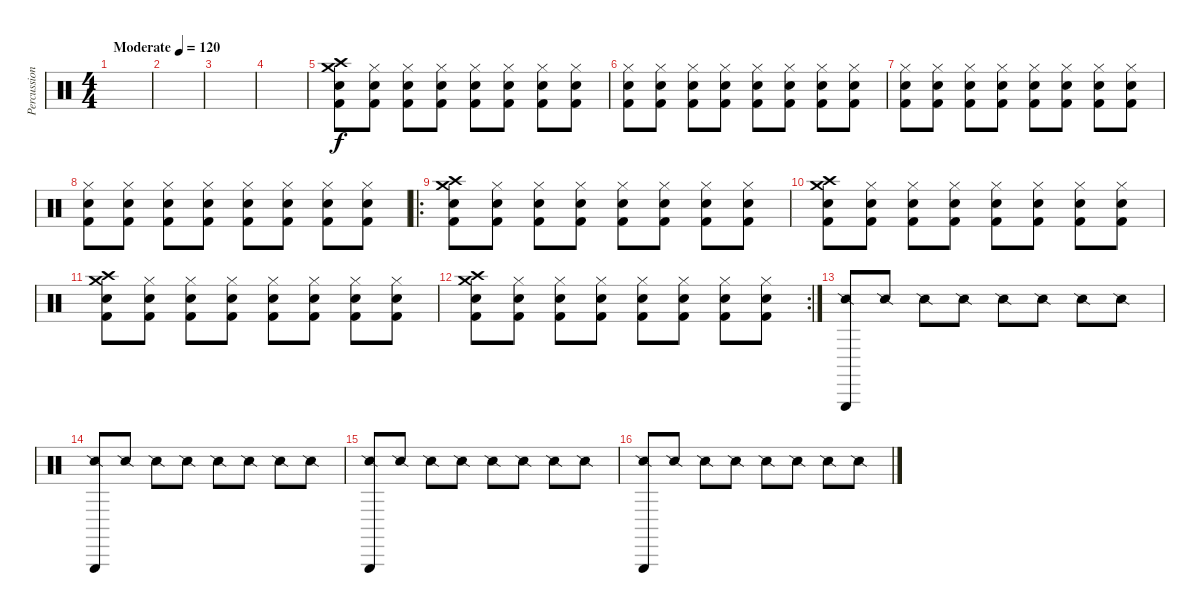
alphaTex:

\track ("Percussion" "Percussion") {instrument percussion}
\staff {score}
\articulation defaults
\ts (4 4)
\tempo (120 "Moderate")
\clef neutral
\ks c
|
|
|
|
("Kick (hit) 2" "Crash high (hit)" "Crash medium (hit)" "Snare (hit) 2").8 ("Hi-Hat (closed)" "Kick (hit) 2" "Snare (hit) 2").8 ("Hi-Hat (closed)" "Kick (hit) 2" "Snare (hit) 2").8 ("Hi-Hat (closed)" "Kick (hit) 2" "Snare (hit) 2").8 ("Hi-Hat (closed)" "Kick (hit) 2" "Snare (hit) 2").8 ("Hi-Hat (closed)" "Kick (hit) 2" "Snare (hit) 2").8 ("Hi-Hat (closed)" "Kick (hit) 2" "Snare (hit) 2").8 ("Hi-Hat (closed)" "Kick (hit) 2" "Snare (hit) 2").8 |
("Hi-Hat (closed)" "Kick (hit) 2" "Snare (hit) 2").8 ("Hi-Hat (closed)" "Kick (hit) 2" "Snare (hit) 2").8 ("Hi-Hat (closed)" "Kick (hit) 2" "Snare (hit) 2").8 ("Hi-Hat (closed)" "Kick (hit) 2" "Snare (hit) 2").8 ("Hi-Hat (closed)" "Kick (hit) 2" "Snare (hit) 2").8 ("Hi-Hat (closed)" "Kick (hit) 2" "Snare (hit) 2").8 ("Hi-Hat (closed)" "Kick (hit) 2" "Snare (hit) 2").8 ("Hi-Hat (closed)" "Kick (hit) 2" "Snare (hit) 2").8 |
("Hi-Hat (closed)" "Kick (hit) 2" "Snare (hit) 2").8 ("Hi-Hat (closed)" "Kick (hit) 2" "Snare (hit) 2").8 ("Hi-Hat (closed)" "Kick (hit) 2" "Snare (hit) 2").8 ("Hi-Hat (closed)" "Kick (hit) 2" "Snare (hit) 2").8 ("Hi-Hat (closed)" "Kick (hit) 2" "Snare (hit) 2").8 ("Hi-Hat (closed)" "Kick (hit) 2" "Snare (hit) 2").8 ("Hi-Hat (closed)" "Kick (hit) 2" "Snare (hit) 2").8 ("Hi-Hat (closed)" "Kick (hit) 2" "Snare (hit) 2").8 |
("Hi-Hat (closed)" "Kick (hit) 2" "Snare (hit) 2").8 ("Hi-Hat (closed)" "Kick (hit) 2" "Snare (hit) 2").8 ("Hi-Hat (closed)" "Kick (hit) 2" "Snare (hit) 2").8 ("Hi-Hat (closed)" "Kick (hit) 2" "Snare (hit) 2").8 ("Hi-Hat (closed)" "Kick (hit) 2" "Snare (hit) 2").8 ("Hi-Hat (closed)" "Kick (hit) 2" "Snare (hit) 2").8 ("Hi-Hat (closed)" "Kick (hit) 2" "Snare (hit) 2").8 ("Hi-Hat (closed)" "Kick (hit) 2" "Snare (hit) 2").8 |
\ro
("Kick (hit) 2" "Crash high (hit)" "Crash medium (hit)" "Snare (hit) 2").8 ("Hi-Hat (closed)" "Kick (hit) 2" "Snare (hit) 2").8 ("Hi-Hat (closed)" "Kick (hit) 2" "Snare (hit) 2").8 ("Hi-Hat (closed)" "Kick (hit) 2" "Snare (hit) 2").8 ("Hi-Hat (closed)" "Kick (hit) 2" "Snare (hit) 2").8 ("Hi-Hat (closed)" "Kick (hit) 2" "Snare (hit) 2").8 ("Hi-Hat (closed)" "Kick (hit) 2" "Snare (hit) 2").8 ("Hi-Hat (closed)" "Kick (hit) 2" "Snare (hit) 2").8 |
("Kick (hit) 2" "Crash high (hit)" "Crash medium (hit)" "Snare (hit) 2").8 ("Hi-Hat (closed)" "Kick (hit) 2" "Snare (hit) 2").8 ("Hi-Hat (closed)" "Kick (hit) 2" "Snare (hit) 2").8 ("Hi-Hat (closed)" "Kick (hit) 2" "Snare (hit) 2").8 ("Hi-Hat (closed)" "Kick (hit) 2" "Snare (hit) 2").8 ("Hi-Hat (closed)" "Kick (hit) 2" "Snare (hit) 2").8 ("Hi-Hat (closed)" "Kick (hit) 2" "Snare (hit) 2").8 ("Hi-Hat (closed)" "Kick (hit) 2" "Snare (hit) 2").8 |
("Kick (hit) 2" "Crash high (hit)" "Crash medium (hit)" "Snare (hit) 2").8 ("Hi-Hat (closed)" "Kick (hit) 2" "Snare (hit) 2").8 ("Hi-Hat (closed)" "Kick (hit) 2" "Snare (hit) 2").8 ("Hi-Hat (closed)" "Kick (hit) 2" "Snare (hit) 2").8 ("Hi-Hat (closed)" "Kick (hit) 2" "Snare (hit) 2").8 ("Hi-Hat (closed)" "Kick (hit) 2" "Snare (hit) 2").8 ("Hi-Hat (closed)" "Kick (hit) 2" "Snare (hit) 2").8 ("Hi-Hat (closed)" "Kick (hit) 2" "Snare (hit) 2").8 |
\rc 2
("Kick (hit) 2" "Crash high (hit)" "Crash medium (hit)" "Snare (hit) 2").8 ("Hi-Hat (closed)" "Kick (hit) 2" "Snare (hit) 2").8 ("Hi-Hat (closed)" "Kick (hit) 2" "Snare (hit) 2").8 ("Hi-Hat (closed)" "Kick (hit) 2" "Snare (hit) 2").8 ("Hi-Hat (closed)" "Kick (hit) 2" "Snare (hit) 2").8 ("Hi-Hat (closed)" "Kick (hit) 2" "Snare (hit) 2").8 ("Hi-Hat (closed)" "Kick (hit) 2" "Snare (hit) 2").8 ("Hi-Hat (closed)" "Kick (hit) 2" "Snare (hit) 2").8 |
("Triangle (hit)" "Snare (side stick) 2").8 "Snare (side stick) 2".8 "Snare (side stick) 2".8 "Snare (side stick) 2".8 "Snare (side stick) 2".8 "Snare (side stick) 2".8 "Snare (side stick) 2".8 "Snare (side stick) 2".8 |
("Triangle (hit)" "Snare (side stick) 2").8 "Snare (side stick) 2".8 "Snare (side stick) 2".8 "Snare (side stick) 2".8 "Snare (side stick) 2".8 "Snare (side stick) 2".8 "Snare (side stick) 2".8 "Snare (side stick) 2".8 |
("Triangle (hit)" "Snare (side stick) 2").8 "Snare (side stick) 2".8 "Snare (side stick) 2".8 "Snare (side stick) 2".8 "Snare (side stick) 2".8 "Snare (side stick) 2".8 "Snare (side stick) 2".8 "Snare (side stick) 2".8 |
("Triangle (hit)" "Snare (side stick) 2").8 "Snare (side stick) 2".8 "Snare (side stick) 2".8 "Snare (side stick) 2".8 "Snare (side stick) 2".8 "Snare (side stick) 2".8 "Snare (side stick) 2".8 "Snare (side stick) 2".8
